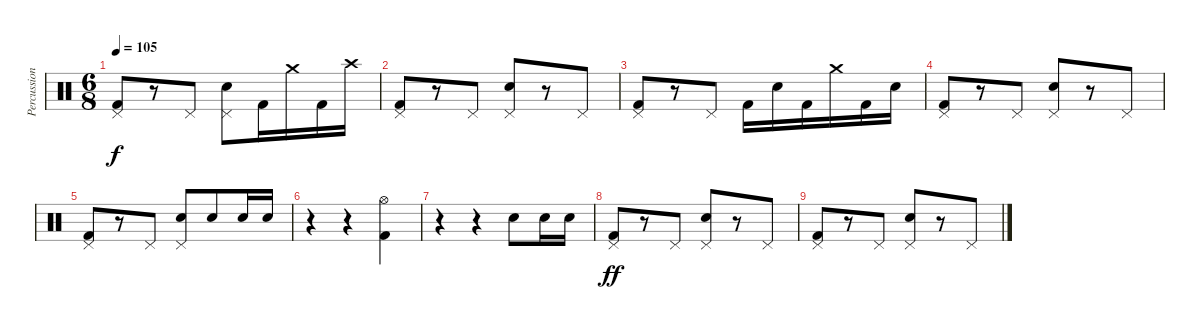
\track ("Percussioni" "Percussion") {instrument percussion}
\staff {score}
\articulation defaults
\ts (6 8)
\tempo 105
\clef neutral
\ks c
("Pedal Hi-Hat (hit)" "Kick (hit) 2").8{dy f} r.8 "Pedal Hi-Hat (hit)".8 ("Pedal Hi-Hat (hit)" "Electric Snare (hit)").8 "Kick (hit) 2".16 "Crash medium (hit)".16 "Kick (hit) 2".16 "Crash high (hit)".16 |
("Pedal Hi-Hat (hit)" "Kick (hit) 2").8 r.8 "Pedal Hi-Hat (hit)".8 ("Pedal Hi-Hat (hit)" "Electric Snare (hit)").8 r.8 "Pedal Hi-Hat (hit)".8 |
("Pedal Hi-Hat (hit)" "Kick (hit) 2").8 r.8 "Pedal Hi-Hat (hit)".8 "Kick (hit) 2".16 "Electric Snare (hit)".16 "Kick (hit) 2".16 "Crash medium (hit)".16 "Kick (hit) 2".16 "Electric Snare (hit)".16 |
("Pedal Hi-Hat (hit)" "Kick (hit) 2").8 r.8 "Pedal Hi-Hat (hit)".8 ("Pedal Hi-Hat (hit)" "Electric Snare (hit)").8 r.8 "Pedal Hi-Hat (hit)".8 |
("Pedal Hi-Hat (hit)" "Kick (hit) 2").8 r.8 "Pedal Hi-Hat (hit)".8 ("Pedal Hi-Hat (hit)" "Electric Snare (hit)").8 "Electric Snare (hit)".8 "Electric Snare (hit)".16 "Electric Snare (hit)".16 |
r.4 r.4 ("Hi-Hat (open)" "Kick (hit) 2").4 |
r.4 r.4 "Electric Snare (hit)".8 "Electric Snare (hit)".16 "Electric Snare (hit)".16 |
("Pedal Hi-Hat (hit)" "Kick (hit) 2").8{dy ff} r.8 "Pedal Hi-Hat (hit)".8 ("Pedal Hi-Hat (hit)" "Electric Snare (hit)").8 r.8 "Pedal Hi-Hat (hit)".8 |
("Pedal Hi-Hat (hit)" "Kick (hit) 2").8 r.8 "Pedal Hi-Hat (hit)".8 ("Pedal Hi-Hat (hit)" "Electric Snare (hit)").8 r.8 "Pedal Hi-Hat (hit)".8
